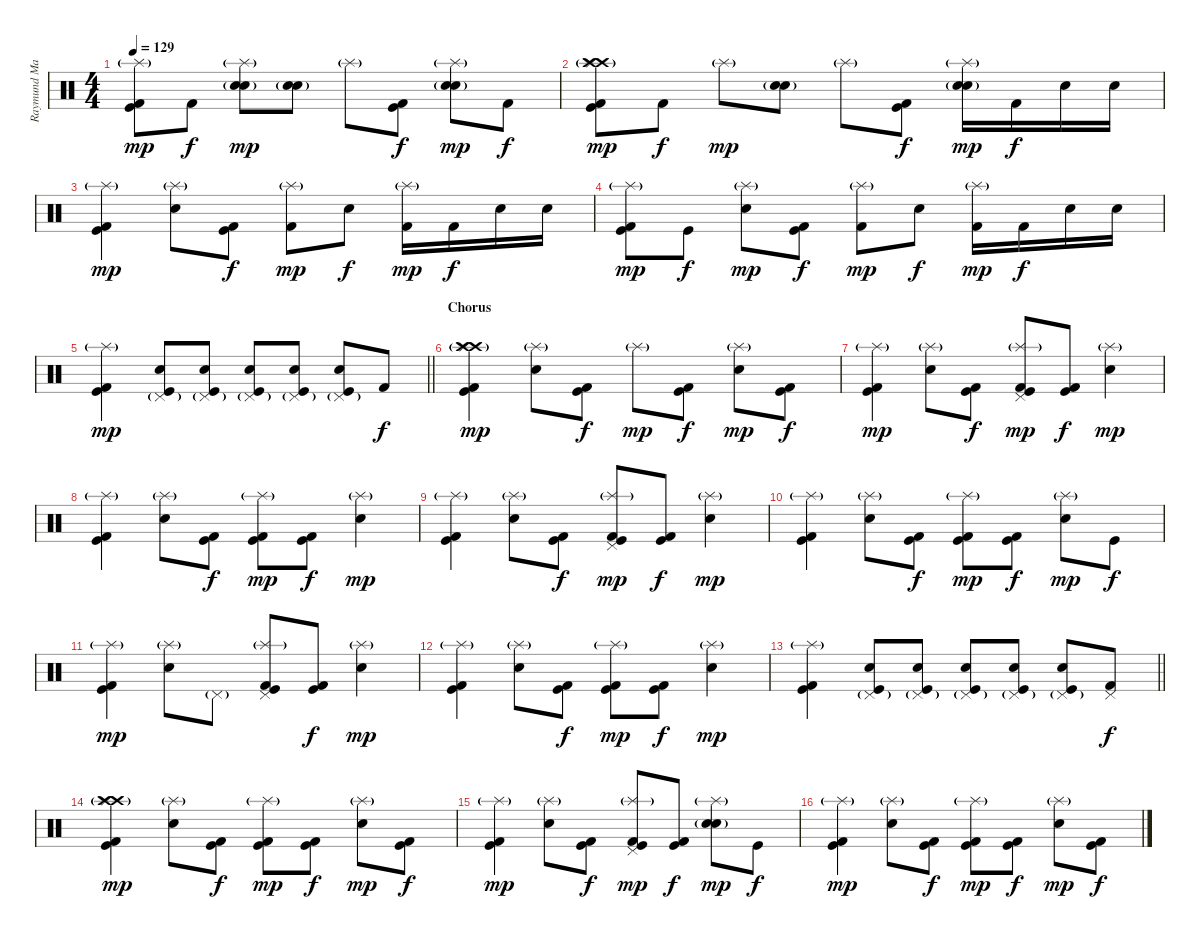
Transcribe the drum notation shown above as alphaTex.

\track ("Raymund Marasigan(Drums)" "Raymund Ma") {instrument percussion}
\staff {score}
\articulation defaults
\ts (4 4)
\tempo 129
\clef neutral
\ks c
("Kick (hit) 2" "Kick (hit)" "Splash (hit)"{g}).8{dy mp} "Kick (hit) 2".8{dy f} ("Electric Snare (hit)" "Splash (hit)"{g} "Snare (hit) 2"{g}).8{dy mp} ("Electric Snare (hit)" "Snare (hit) 2"{g}).8 "Splash (hit)"{g}.8 ("Kick (hit) 2" "Kick (hit)").8{dy f} ("Electric Snare (hit)" "Snare (hit) 2"{g} "Splash (hit)"{g}).8{dy mp} "Kick (hit) 2".8{dy f} |
("Crash high (hit)"{g} "Crash high (hit)"{g} "Kick (hit) 2" "Kick (hit)" "Splash (hit)"{g}).8{dy mp} "Kick (hit) 2".8{dy f} "Splash (hit)"{g}.8{dy mp} ("Electric Snare (hit)" "Snare (hit) 2"{g}).8 "Splash (hit)"{g}.8 ("Kick (hit) 2" "Kick (hit)").8{dy f} ("Electric Snare (hit)" "Snare (hit) 2"{g} "Splash (hit)"{g}).16{dy mp} "Kick (hit) 2".16{dy f} "Electric Snare (hit)".16 "Electric Snare (hit)".16 |
("Kick (hit) 2" "Kick (hit)" "Splash (hit)"{g}).4{dy mp} ("Electric Snare (hit)" "Splash (hit)"{g}).8 ("Kick (hit) 2" "Kick (hit)").8{dy f} ("Kick (hit) 2" "Splash (hit)"{g}).8{dy mp} "Electric Snare (hit)".8{dy f} ("Splash (hit)"{g} "Kick (hit) 2").16{dy mp} "Kick (hit) 2".16{dy f} "Electric Snare (hit)".16 "Electric Snare (hit)".16 |
("Kick (hit) 2" "Kick (hit)" "Splash (hit)"{g}).8{dy mp} "Kick (hit)".8{dy f} ("Electric Snare (hit)" "Splash (hit)"{g}).8{dy mp} ("Kick (hit) 2" "Kick (hit)").8{dy f} ("Kick (hit) 2" "Splash (hit)"{g}).8{dy mp} "Electric Snare (hit)".8{dy f} ("Splash (hit)"{g} "Kick (hit) 2").16{dy mp} "Kick (hit) 2".16{dy f} "Electric Snare (hit)".16 "Electric Snare (hit)".16 |
\barLineRight lightlight
("Kick (hit) 2" "Kick (hit)" "Splash (hit)"{g}).4{dy mp} ("Electric Snare (hit)" "Kick (hit)" "Pedal Hi-Hat (hit)"{g}).8 ("Electric Snare (hit)" "Kick (hit)" "Pedal Hi-Hat (hit)"{g}).8 ("Electric Snare (hit)" "Kick (hit)" "Pedal Hi-Hat (hit)"{g}).8 ("Electric Snare (hit)" "Kick (hit)" "Pedal Hi-Hat (hit)"{g}).8 ("Electric Snare (hit)" "Kick (hit)" "Pedal Hi-Hat (hit)"{g}).8 "Kick (hit) 2".8{dy f} |
\section ("" "Chorus")
("Crash high (hit)"{g} "Crash high (hit)"{g} "Kick (hit) 2" "Kick (hit)" "Splash (hit)"{g}).4{dy mp} ("Electric Snare (hit)" "Splash (hit)"{g}).8 ("Kick (hit) 2" "Kick (hit)").8{dy f} "Splash (hit)"{g}.8{dy mp} ("Kick (hit) 2" "Kick (hit)").8{dy f} ("Electric Snare (hit)" "Splash (hit)"{g}).8{dy mp} ("Kick (hit) 2" "Kick (hit)").8{dy f} |
("Kick (hit) 2" "Kick (hit)" "Splash (hit)"{g}).4{dy mp} ("Electric Snare (hit)" "Splash (hit)"{g}).8 ("Kick (hit) 2" "Kick (hit)").8{dy f} ("Kick (hit) 2" "Kick (hit)" "Splash (hit)"{g} "Pedal Hi-Hat (hit)").8{dy mp} ("Kick (hit) 2" "Kick (hit)").8{dy f} ("Electric Snare (hit)" "Splash (hit)"{g}).4{dy mp} |
("Kick (hit) 2" "Kick (hit)" "Splash (hit)"{g}).4 ("Electric Snare (hit)" "Splash (hit)"{g}).8 ("Kick (hit) 2" "Kick (hit)").8{dy f} ("Kick (hit) 2" "Kick (hit)" "Splash (hit)"{g}).8{dy mp} ("Kick (hit) 2" "Kick (hit)").8{dy f} ("Electric Snare (hit)" "Splash (hit)"{g}).4{dy mp} |
("Kick (hit) 2" "Kick (hit)" "Splash (hit)"{g}).4 ("Electric Snare (hit)" "Splash (hit)"{g}).8 ("Kick (hit) 2" "Kick (hit)").8{dy f} ("Kick (hit) 2" "Kick (hit)" "Splash (hit)"{g} "Pedal Hi-Hat (hit)").8{dy mp} ("Kick (hit) 2" "Kick (hit)").8{dy f} ("Electric Snare (hit)" "Splash (hit)"{g}).4{dy mp} |
("Kick (hit) 2" "Kick (hit)" "Splash (hit)"{g}).4 ("Electric Snare (hit)" "Splash (hit)"{g}).8 ("Kick (hit) 2" "Kick (hit)").8{dy f} ("Kick (hit) 2" "Kick (hit)" "Splash (hit)"{g}).8{dy mp} ("Kick (hit) 2" "Kick (hit)").8{dy f} ("Electric Snare (hit)" "Splash (hit)"{g}).8{dy mp} "Kick (hit)".8{dy f} |
("Kick (hit) 2" "Kick (hit)" "Splash (hit)"{g}).4{dy mp} ("Electric Snare (hit)" "Splash (hit)"{g}).8 "Pedal Hi-Hat (hit)"{g}.8 ("Kick (hit) 2" "Kick (hit)" "Splash (hit)"{g} "Pedal Hi-Hat (hit)").8 ("Kick (hit) 2" "Kick (hit)").8{dy f} ("Electric Snare (hit)" "Splash (hit)"{g}).4{dy mp} |
("Kick (hit) 2" "Kick (hit)" "Splash (hit)"{g}).4 ("Electric Snare (hit)" "Splash (hit)"{g}).8 ("Kick (hit) 2" "Kick (hit)").8{dy f} ("Kick (hit) 2" "Kick (hit)" "Splash (hit)"{g}).8{dy mp} ("Kick (hit) 2" "Kick (hit)").8{dy f} ("Electric Snare (hit)" "Splash (hit)"{g}).4{dy mp} |
\barLineRight lightlight
("Kick (hit) 2" "Kick (hit)" "Splash (hit)"{g}).4 ("Electric Snare (hit)" "Kick (hit)" "Pedal Hi-Hat (hit)"{g}).8 ("Electric Snare (hit)" "Kick (hit)" "Pedal Hi-Hat (hit)"{g}).8 ("Electric Snare (hit)" "Kick (hit)" "Pedal Hi-Hat (hit)"{g}).8 ("Electric Snare (hit)" "Kick (hit)" "Pedal Hi-Hat (hit)"{g}).8 ("Electric Snare (hit)" "Kick (hit)" "Pedal Hi-Hat (hit)"{g}).8 ("Pedal Hi-Hat (hit)" "Kick (hit) 2").8{dy f} |
("Crash high (hit)"{g} "Crash high (hit)"{g} "Kick (hit) 2" "Kick (hit)" "Splash (hit)"{g}).4{dy mp} ("Electric Snare (hit)" "Splash (hit)"{g}).8 ("Kick (hit) 2" "Kick (hit)").8{dy f} ("Kick (hit) 2" "Kick (hit)" "Splash (hit)"{g}).8{dy mp} ("Kick (hit) 2" "Kick (hit)").8{dy f} ("Electric Snare (hit)" "Splash (hit)"{g}).8{dy mp} ("Kick (hit) 2" "Kick (hit)").8{dy f} |
("Kick (hit) 2" "Kick (hit)" "Splash (hit)"{g}).4{dy mp} ("Electric Snare (hit)" "Splash (hit)"{g}).8 ("Kick (hit) 2" "Kick (hit)").8{dy f} ("Kick (hit) 2" "Kick (hit)" "Splash (hit)"{g} "Pedal Hi-Hat (hit)").8{dy mp} ("Kick (hit) 2" "Kick (hit)").8{dy f} ("Electric Snare (hit)" "Splash (hit)"{g} "Snare (hit) 2"{g}).8{dy mp} "Kick (hit)".8{dy f} |
("Kick (hit) 2" "Kick (hit)" "Splash (hit)"{g}).4{dy mp} ("Electric Snare (hit)" "Splash (hit)"{g}).8 ("Kick (hit) 2" "Kick (hit)").8{dy f} ("Kick (hit) 2" "Kick (hit)" "Splash (hit)"{g}).8{dy mp} ("Kick (hit) 2" "Kick (hit)").8{dy f} ("Electric Snare (hit)" "Splash (hit)"{g}).8{dy mp} ("Kick (hit) 2" "Kick (hit)").8{dy f}
